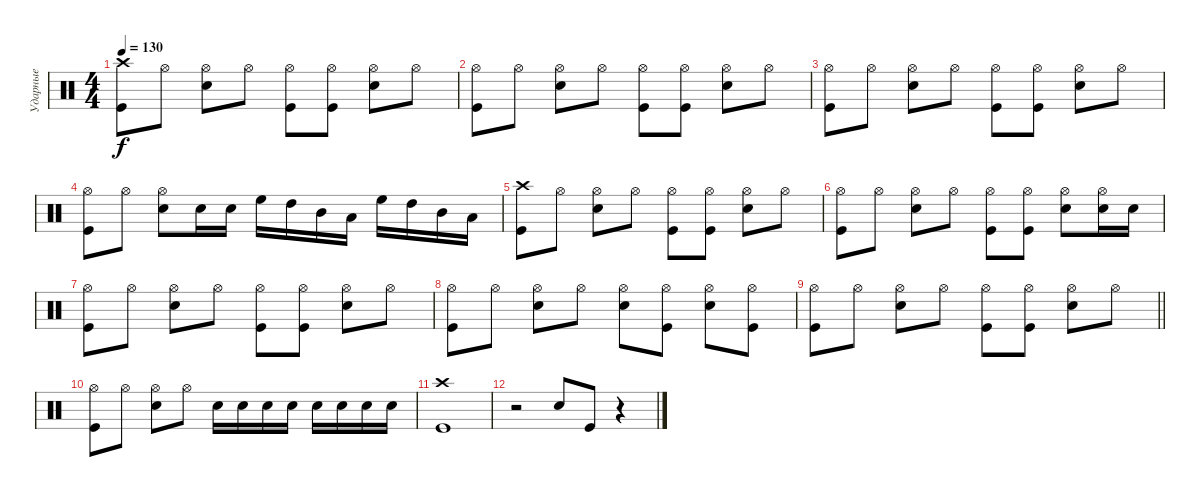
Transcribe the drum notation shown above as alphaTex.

\track ("Ударные" "Ударные") {instrument percussion}
\staff {score}
\articulation defaults
\ts (4 4)
\tempo 130
\clef neutral
\ks c
("Crash high (hit)" "Kick (hit)").8{dy f} "Hi-Hat (open)".8 ("Hi-Hat (open)" "Snare (hit) 2").8 "Hi-Hat (open)".8 ("Hi-Hat (open)" "Kick (hit)").8 ("Hi-Hat (open)" "Kick (hit)").8 ("Hi-Hat (open)" "Snare (hit) 2").8 "Hi-Hat (open)".8 |
("Hi-Hat (open)" "Kick (hit)").8 "Hi-Hat (open)".8 ("Hi-Hat (open)" "Snare (hit) 2").8 "Hi-Hat (open)".8 ("Hi-Hat (open)" "Kick (hit)").8 ("Hi-Hat (open)" "Kick (hit)").8 ("Hi-Hat (open)" "Snare (hit) 2").8 "Hi-Hat (open)".8 |
("Hi-Hat (open)" "Kick (hit)").8 "Hi-Hat (open)".8 ("Hi-Hat (open)" "Snare (hit) 2").8 "Hi-Hat (open)".8 ("Hi-Hat (open)" "Kick (hit)").8 ("Hi-Hat (open)" "Kick (hit)").8 ("Hi-Hat (open)" "Snare (hit) 2").8 "Hi-Hat (open)".8 |
("Hi-Hat (open)" "Kick (hit)").8 "Hi-Hat (open)".8 ("Hi-Hat (open)" "Snare (hit) 2").8 "Snare (hit) 2".16 "Snare (hit) 2".16 "High Floor Tom (hit)".16 "High Tom (hit)".16 "Mid Tom (hit)".16 "Low Tom (hit)".16 "High Floor Tom (hit)".16 "High Tom (hit)".16 "Mid Tom (hit)".16 "Low Tom (hit)".16 |
("Crash high (hit)" "Kick (hit)").8 "Hi-Hat (open)".8 ("Hi-Hat (open)" "Snare (hit) 2").8 "Hi-Hat (open)".8 ("Hi-Hat (open)" "Kick (hit)").8 ("Hi-Hat (open)" "Kick (hit)").8 ("Hi-Hat (open)" "Snare (hit) 2").8 "Hi-Hat (open)".8 |
("Hi-Hat (open)" "Kick (hit)").8 "Hi-Hat (open)".8 ("Hi-Hat (open)" "Snare (hit) 2").8 "Hi-Hat (open)".8 ("Hi-Hat (open)" "Kick (hit)").8 ("Hi-Hat (open)" "Kick (hit)").8 ("Hi-Hat (open)" "Snare (hit) 2").8 ("Hi-Hat (open)" "Snare (hit) 2").16 "Snare (hit) 2".16 |
("Hi-Hat (open)" "Kick (hit)").8 "Hi-Hat (open)".8 ("Hi-Hat (open)" "Snare (hit) 2").8 "Hi-Hat (open)".8 ("Hi-Hat (open)" "Kick (hit)").8 ("Hi-Hat (open)" "Kick (hit)").8 ("Hi-Hat (open)" "Snare (hit) 2").8 "Hi-Hat (open)".8 |
("Hi-Hat (open)" "Kick (hit)").8 "Hi-Hat (open)".8 ("Hi-Hat (open)" "Snare (hit) 2").8 "Hi-Hat (open)".8 ("Hi-Hat (open)" "Snare (hit) 2").8 ("Hi-Hat (open)" "Kick (hit)").8 ("Hi-Hat (open)" "Snare (hit) 2").8 ("Hi-Hat (open)" "Kick (hit)").8 |
\barLineRight lightlight
("Hi-Hat (open)" "Kick (hit)").8 "Hi-Hat (open)".8 ("Hi-Hat (open)" "Snare (hit) 2").8 "Hi-Hat (open)".8 ("Hi-Hat (open)" "Kick (hit)").8 ("Hi-Hat (open)" "Kick (hit)").8 ("Hi-Hat (open)" "Snare (hit) 2").8 "Hi-Hat (open)".8 |
("Hi-Hat (open)" "Kick (hit)").8 "Hi-Hat (open)".8 ("Hi-Hat (open)" "Snare (hit) 2").8 "Hi-Hat (open)".8 "Snare (hit) 2".16 "Snare (hit) 2".16 "Snare (hit) 2".16 "Snare (hit) 2".16 "Snare (hit) 2".16 "Snare (hit) 2".16 "Snare (hit) 2".16 "Snare (hit) 2".16 |
("Crash high (hit)" "Kick (hit)").1 |
r.2 "Snare (hit) 2".8 "Kick (hit)".8 r.4
